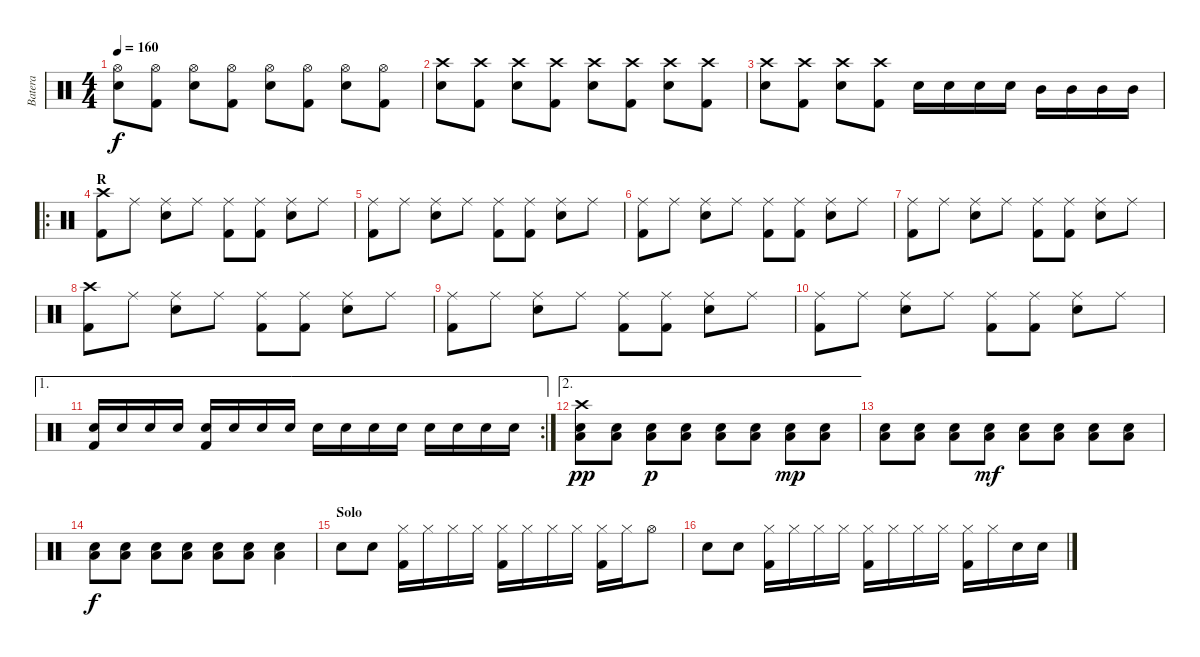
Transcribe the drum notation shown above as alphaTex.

\track ("Batera" "Batera") {instrument percussion}
\staff {score}
\articulation defaults
\ts (4 4)
\tempo 160
\clef neutral
\ks c
("Hi-Hat (open)" "Electric Snare (hit)").8{dy f} ("Hi-Hat (open)" "Kick (hit) 2").8 ("Hi-Hat (open)" "Electric Snare (hit)").8 ("Hi-Hat (open)" "Kick (hit) 2").8 ("Hi-Hat (open)" "Electric Snare (hit)").8 ("Hi-Hat (open)" "Kick (hit) 2").8 ("Hi-Hat (open)" "Electric Snare (hit)").8 ("Hi-Hat (open)" "Kick (hit) 2").8 |
("Crash high (hit)" "Electric Snare (hit)").8 ("Crash high (hit)" "Kick (hit) 2").8 ("Crash high (hit)" "Electric Snare (hit)").8 ("Crash high (hit)" "Kick (hit) 2").8 ("Crash high (hit)" "Electric Snare (hit)").8 ("Crash high (hit)" "Kick (hit) 2").8 ("Crash high (hit)" "Electric Snare (hit)").8 ("Crash high (hit)" "Kick (hit) 2").8 |
("Crash high (hit)" "Electric Snare (hit)").8 ("Crash high (hit)" "Kick (hit) 2").8 ("Crash high (hit)" "Electric Snare (hit)").8 ("Crash high (hit)" "Kick (hit) 2").8 "Electric Snare (hit)".16 "Electric Snare (hit)".16 "Electric Snare (hit)".16 "Electric Snare (hit)".16 "Mid Tom (hit)".16 "Mid Tom (hit)".16 "Mid Tom (hit)".16 "Mid Tom (hit)".16 |
\ro
\section ("" "R")
("Crash high (hit)" "Kick (hit) 2").8 "Ride (middle)".8 ("Ride (middle)" "Electric Snare (hit)").8 "Ride (middle)".8 ("Ride (middle)" "Kick (hit) 2").8 ("Ride (middle)" "Kick (hit) 2").8 ("Ride (middle)" "Electric Snare (hit)").8 "Ride (middle)".8 |
("Ride (middle)" "Kick (hit) 2").8 "Ride (middle)".8 ("Ride (middle)" "Electric Snare (hit)").8 "Ride (middle)".8 ("Ride (middle)" "Kick (hit) 2").8 ("Ride (middle)" "Kick (hit) 2").8 ("Ride (middle)" "Electric Snare (hit)").8 "Ride (middle)".8 |
("Ride (middle)" "Kick (hit) 2").8 "Ride (middle)".8 ("Ride (middle)" "Electric Snare (hit)").8 "Ride (middle)".8 ("Ride (middle)" "Kick (hit) 2").8 ("Ride (middle)" "Kick (hit) 2").8 ("Ride (middle)" "Electric Snare (hit)").8 "Ride (middle)".8 |
("Ride (middle)" "Kick (hit) 2").8 "Ride (middle)".8 ("Ride (middle)" "Electric Snare (hit)").8 "Ride (middle)".8 ("Ride (middle)" "Kick (hit) 2").8 ("Ride (middle)" "Kick (hit) 2").8 ("Ride (middle)" "Electric Snare (hit)").8 "Ride (middle)".8 |
("Crash high (hit)" "Kick (hit) 2").8 "Ride (middle)".8 ("Ride (middle)" "Electric Snare (hit)").8 "Ride (middle)".8 ("Ride (middle)" "Kick (hit) 2").8 ("Ride (middle)" "Kick (hit) 2").8 ("Ride (middle)" "Electric Snare (hit)").8 "Ride (middle)".8 |
("Ride (middle)" "Kick (hit) 2").8 "Ride (middle)".8 ("Ride (middle)" "Electric Snare (hit)").8 "Ride (middle)".8 ("Ride (middle)" "Kick (hit) 2").8 ("Ride (middle)" "Kick (hit) 2").8 ("Ride (middle)" "Electric Snare (hit)").8 "Ride (middle)".8 |
("Ride (middle)" "Kick (hit) 2").8 "Ride (middle)".8 ("Ride (middle)" "Electric Snare (hit)").8 "Ride (middle)".8 ("Ride (middle)" "Kick (hit) 2").8 ("Ride (middle)" "Kick (hit) 2").8 ("Ride (middle)" "Electric Snare (hit)").8 "Ride (middle)".8 |
\ae 1
\rc 2
("Electric Snare (hit)" "Kick (hit) 2").16 "Electric Snare (hit)".16 "Electric Snare (hit)".16 "Electric Snare (hit)".16 ("Electric Snare (hit)" "Kick (hit) 2").16 "Electric Snare (hit)".16 "Electric Snare (hit)".16 "Electric Snare (hit)".16 "Electric Snare (hit)".16 "Electric Snare (hit)".16 "Electric Snare (hit)".16 "Electric Snare (hit)".16 "Electric Snare (hit)".16 "Electric Snare (hit)".16 "Electric Snare (hit)".16 "Electric Snare (hit)".16 |
\ae 2
("Crash high (hit)" "Electric Snare (hit)" "Low Tom (hit)").8{dy pp} ("Electric Snare (hit)" "Low Tom (hit)").8 ("Electric Snare (hit)" "Low Tom (hit)").8{dy p} ("Electric Snare (hit)" "Low Tom (hit)").8 ("Electric Snare (hit)" "Low Tom (hit)").8 ("Electric Snare (hit)" "Low Tom (hit)").8 ("Electric Snare (hit)" "Low Tom (hit)").8{dy mp} ("Electric Snare (hit)" "Low Tom (hit)").8 |
("Electric Snare (hit)" "Low Tom (hit)").8 ("Electric Snare (hit)" "Low Tom (hit)").8 ("Electric Snare (hit)" "Low Tom (hit)").8 ("Electric Snare (hit)" "Low Tom (hit)").8{dy mf} ("Electric Snare (hit)" "Low Tom (hit)").8 ("Electric Snare (hit)" "Low Tom (hit)").8 ("Electric Snare (hit)" "Low Tom (hit)").8 ("Electric Snare (hit)" "Low Tom (hit)").8 |
("Electric Snare (hit)" "Low Tom (hit)").8{dy f} ("Electric Snare (hit)" "Low Tom (hit)").8 ("Electric Snare (hit)" "Low Tom (hit)").8 ("Electric Snare (hit)" "Low Tom (hit)").8 ("Electric Snare (hit)" "Low Tom (hit)").8 ("Electric Snare (hit)" "Low Tom (hit)").8 ("Electric Snare (hit)" "Low Tom (hit)").4 |
\section ("" "Solo")
"Electric Snare (hit)".8 "Electric Snare (hit)".8 ("Hi-Hat (closed)" "Kick (hit) 2").16 "Hi-Hat (closed)".16 "Hi-Hat (closed)".16 "Hi-Hat (closed)".16 ("Hi-Hat (closed)" "Kick (hit) 2").16 "Hi-Hat (closed)".16 "Hi-Hat (closed)".16 "Hi-Hat (closed)".16 ("Hi-Hat (closed)" "Kick (hit) 2").16 "Hi-Hat (closed)".16 "Hi-Hat (open)".8 |
"Electric Snare (hit)".8 "Electric Snare (hit)".8 ("Hi-Hat (closed)" "Kick (hit) 2").16 "Hi-Hat (closed)".16 "Hi-Hat (closed)".16 "Hi-Hat (closed)".16 ("Hi-Hat (closed)" "Kick (hit) 2").16 "Hi-Hat (closed)".16 "Hi-Hat (closed)".16 "Hi-Hat (closed)".16 ("Hi-Hat (closed)" "Kick (hit) 2").16 "Hi-Hat (closed)".16 "Electric Snare (hit)".16 "Electric Snare (hit)".16
